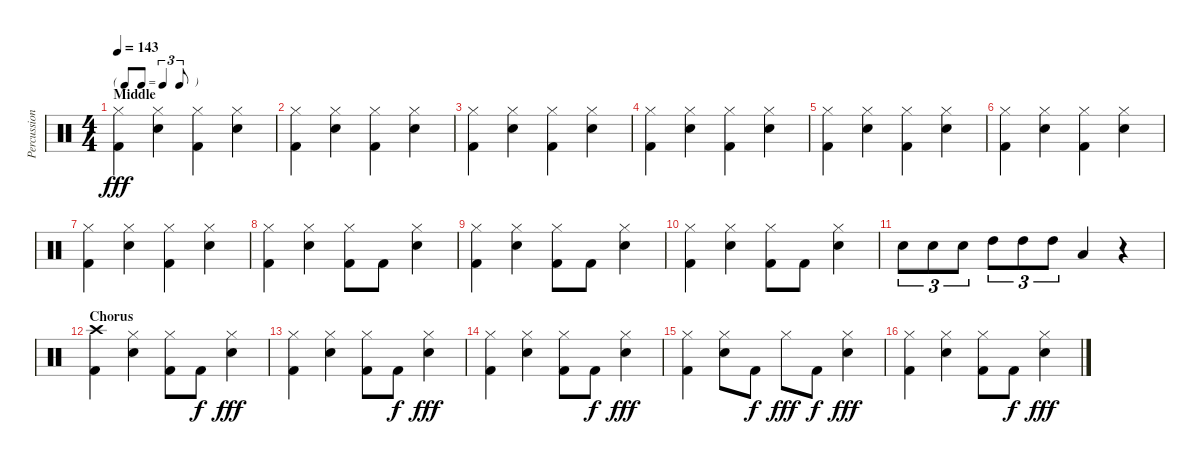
\track ("Percussion" "Percussion") {instrument percussion}
\staff {score}
\articulation defaults
\ts (4 4)
\tf triplet8th
\section ("" "Middle")
\tempo 143
\clef neutral
\ks c
("Hi-Hat (closed)" "Kick (hit) 2").4{dy fff} ("Hi-Hat (closed)" "Snare (hit) 2").4 ("Hi-Hat (closed)" "Kick (hit) 2").4 ("Hi-Hat (closed)" "Snare (hit) 2").4 |
("Hi-Hat (closed)" "Kick (hit) 2").4 ("Hi-Hat (closed)" "Snare (hit) 2").4 ("Hi-Hat (closed)" "Kick (hit) 2").4 ("Hi-Hat (closed)" "Snare (hit) 2").4 |
("Hi-Hat (closed)" "Kick (hit) 2").4 ("Hi-Hat (closed)" "Snare (hit) 2").4 ("Hi-Hat (closed)" "Kick (hit) 2").4 ("Hi-Hat (closed)" "Snare (hit) 2").4 |
("Hi-Hat (closed)" "Kick (hit) 2").4 ("Hi-Hat (closed)" "Snare (hit) 2").4 ("Hi-Hat (closed)" "Kick (hit) 2").4 ("Hi-Hat (closed)" "Snare (hit) 2").4 |
("Hi-Hat (closed)" "Kick (hit) 2").4 ("Hi-Hat (closed)" "Snare (hit) 2").4 ("Hi-Hat (closed)" "Kick (hit) 2").4 ("Hi-Hat (closed)" "Snare (hit) 2").4 |
("Hi-Hat (closed)" "Kick (hit) 2").4 ("Hi-Hat (closed)" "Snare (hit) 2").4 ("Hi-Hat (closed)" "Kick (hit) 2").4 ("Hi-Hat (closed)" "Snare (hit) 2").4 |
("Hi-Hat (closed)" "Kick (hit) 2").4 ("Hi-Hat (closed)" "Snare (hit) 2").4 ("Hi-Hat (closed)" "Kick (hit) 2").4 ("Hi-Hat (closed)" "Snare (hit) 2").4 |
("Hi-Hat (closed)" "Kick (hit) 2").4 ("Hi-Hat (closed)" "Snare (hit) 2").4 ("Hi-Hat (closed)" "Kick (hit) 2").8 "Kick (hit) 2".8 ("Hi-Hat (closed)" "Snare (hit) 2").4 |
("Hi-Hat (closed)" "Kick (hit) 2").4 ("Hi-Hat (closed)" "Snare (hit) 2").4 ("Hi-Hat (closed)" "Kick (hit) 2").8 "Kick (hit) 2".8 ("Hi-Hat (closed)" "Snare (hit) 2").4 |
("Hi-Hat (closed)" "Kick (hit) 2").4 ("Hi-Hat (closed)" "Snare (hit) 2").4 ("Hi-Hat (closed)" "Kick (hit) 2").8 "Kick (hit) 2".8 ("Hi-Hat (closed)" "Snare (hit) 2").4 |
"Snare (hit) 2".8{tu (3 2)} "Snare (hit) 2".8{tu (3 2)} "Snare (hit) 2".8{tu (3 2)} "High Tom (hit)".8{tu (3 2)} "High Tom (hit)".8{tu (3 2)} "High Tom (hit)".8{tu (3 2)} "Low Tom (hit)".4 r.4 |
\section ("" "Chorus")
("Crash high (hit)" "Kick (hit) 2").4 ("Hi-Hat (closed)" "Snare (hit) 2").4 ("Hi-Hat (closed)" "Kick (hit) 2").8 "Kick (hit) 2".8{dy f} ("Hi-Hat (closed)" "Snare (hit) 2").4{dy fff} |
("Hi-Hat (closed)" "Kick (hit) 2").4 ("Hi-Hat (closed)" "Snare (hit) 2").4 ("Hi-Hat (closed)" "Kick (hit) 2").8 "Kick (hit) 2".8{dy f} ("Hi-Hat (closed)" "Snare (hit) 2").4{dy fff} |
("Hi-Hat (closed)" "Kick (hit) 2").4 ("Hi-Hat (closed)" "Snare (hit) 2").4 ("Hi-Hat (closed)" "Kick (hit) 2").8 "Kick (hit) 2".8{dy f} ("Hi-Hat (closed)" "Snare (hit) 2").4{dy fff} |
("Hi-Hat (closed)" "Kick (hit) 2").4 ("Hi-Hat (closed)" "Snare (hit) 2").8 "Kick (hit) 2".8{dy f} "Hi-Hat (closed)".8{dy fff} "Kick (hit) 2".8{dy f} ("Hi-Hat (closed)" "Snare (hit) 2").4{dy fff} |
("Hi-Hat (closed)" "Kick (hit) 2").4 ("Hi-Hat (closed)" "Snare (hit) 2").4 ("Hi-Hat (closed)" "Kick (hit) 2").8 "Kick (hit) 2".8{dy f} ("Hi-Hat (closed)" "Snare (hit) 2").4{dy fff}
